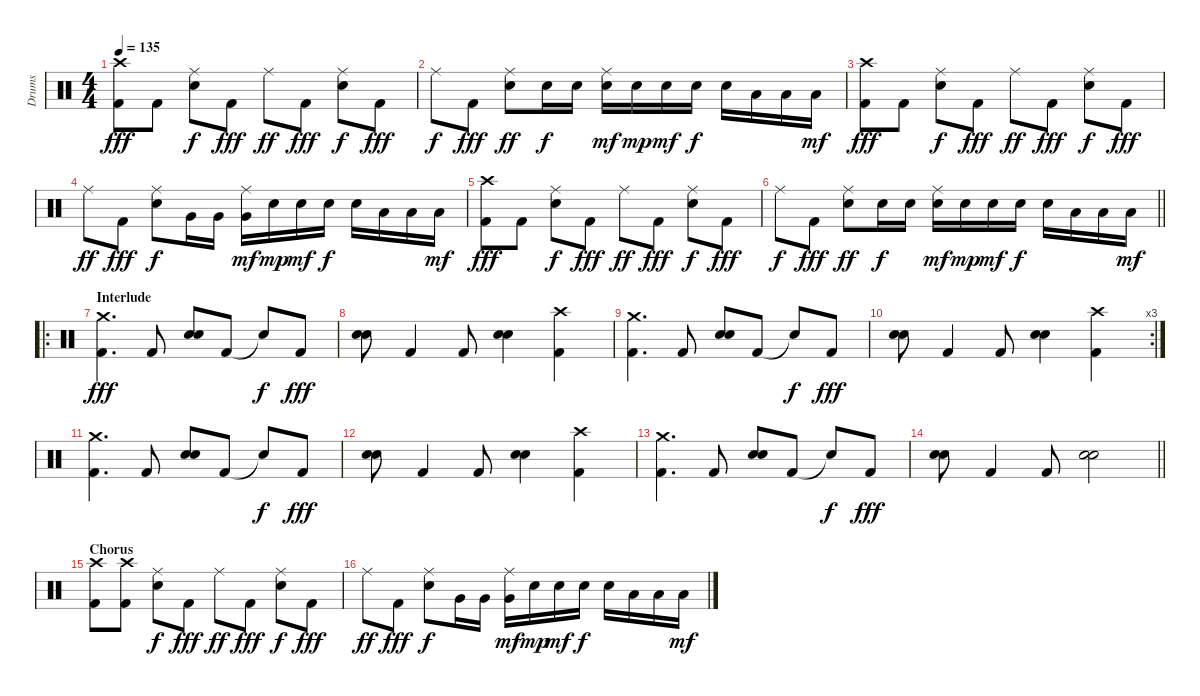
\track ("Drums" "Drums") {instrument percussion}
\staff {score}
\articulation defaults
\ts (4 4)
\tempo 135
\clef neutral
\ks c
("Crash high (hit)" "Kick (hit) 2").8{dy fff} "Kick (hit) 2".8 ("Ride (middle)" "Electric Snare (hit)").8{dy f} "Kick (hit) 2".8{dy fff} "Ride (middle)".8{dy ff} "Kick (hit) 2".8{dy fff} ("Ride (middle)" "Electric Snare (hit)").8{dy f} "Kick (hit) 2".8{dy fff} |
"Ride (middle)".8{dy f} "Kick (hit) 2".8{dy fff} ("Ride (middle)" "Electric Snare (hit)").8{dy ff} "Electric Snare (hit)".16{dy f} "Electric Snare (hit)".16 ("Ride (middle)" "Electric Snare (hit)").16{dy mf} "Electric Snare (hit)".16{dy mp} "Electric Snare (hit)".16{dy mf} "Electric Snare (hit)".16{dy f} "Electric Snare (hit)".16 "Low Tom (hit)".16 "Low Tom (hit)".16 "Low Tom (hit)".16{dy mf} |
("Crash high (hit)" "Kick (hit) 2").8{dy fff} "Kick (hit) 2".8 ("Ride (middle)" "Electric Snare (hit)").8{dy f} "Kick (hit) 2".8{dy fff} "Ride (middle)".8{dy ff} "Kick (hit) 2".8{dy fff} ("Ride (middle)" "Electric Snare (hit)").8{dy f} "Kick (hit) 2".8{dy fff} |
"Ride (middle)".8{dy ff} "Kick (hit) 2".8{dy fff} ("Ride (middle)" "Electric Snare (hit)").8{dy f} "Very Low Tom (hit)".16 "Very Low Tom (hit)".16 ("Ride (middle)" "Very Low Tom (hit)").16{dy mf} "Electric Snare (hit)".16{dy mp} "Electric Snare (hit)".16{dy mf} "Electric Snare (hit)".16{dy f} "Electric Snare (hit)".16 "Low Tom (hit)".16 "Low Tom (hit)".16 "Low Tom (hit)".16{dy mf} |
("Crash high (hit)" "Kick (hit) 2").8{dy fff} "Kick (hit) 2".8 ("Ride (middle)" "Electric Snare (hit)").8{dy f} "Kick (hit) 2".8{dy fff} "Ride (middle)".8{dy ff} "Kick (hit) 2".8{dy fff} ("Ride (middle)" "Electric Snare (hit)").8{dy f} "Kick (hit) 2".8{dy fff} |
\barLineRight lightlight "Ride (middle)".8{dy f} "Kick (hit) 2".8{dy fff}
("Ride (middle)" "Electric Snare (hit)").8{dy ff} "Electric Snare (hit)".16{dy f} "Electric Snare (hit)".16 ("Ride (middle)" "Electric Snare (hit)").16{dy mf} "Electric Snare (hit)".16{dy mp} "Electric Snare (hit)".16{dy mf} "Electric Snare (hit)".16{dy f} "Electric Snare (hit)".16 "Low Tom (hit)".16 "Low Tom (hit)".16 "Low Tom (hit)".16{dy mf} |
\ro
\section ("" "Interlude")
("Crash medium (hit)" "Kick (hit) 2").4{d dy fff} "Kick (hit) 2".8 ("Electric Snare (hit)" "Electric Snare (hit)").8 "Kick (hit) 2".8 "Snare (hit)"{t}.8{dy f} "Kick (hit) 2".8{dy fff} |
("Electric Snare (hit)" "Electric Snare (hit)").8 "Kick (hit) 2".4 "Kick (hit) 2".8 ("Electric Snare (hit)" "Electric Snare (hit)").4 ("Crash high (hit)" "Kick (hit) 2").4 |
("Crash medium (hit)" "Kick (hit) 2").4{d} "Kick (hit) 2".8 ("Electric Snare (hit)" "Electric Snare (hit)").8 "Kick (hit) 2".8 "Snare (hit)"{t}.8{dy f} "Kick (hit) 2".8{dy fff} |
\rc 3
("Electric Snare (hit)" "Electric Snare (hit)").8 "Kick (hit) 2".4 "Kick (hit) 2".8 ("Electric Snare (hit)" "Electric Snare (hit)").4 ("Crash high (hit)" "Kick (hit) 2").4 |
("Crash medium (hit)" "Kick (hit) 2").4{d} "Kick (hit) 2".8 ("Electric Snare (hit)" "Electric Snare (hit)").8 "Kick (hit) 2".8 "Snare (hit)"{t}.8{dy f} "Kick (hit) 2".8{dy fff} |
("Electric Snare (hit)" "Electric Snare (hit)").8 "Kick (hit) 2".4 "Kick (hit) 2".8 ("Electric Snare (hit)" "Electric Snare (hit)").4 ("Crash high (hit)" "Kick (hit) 2").4 |
("Crash medium (hit)" "Kick (hit) 2").4{d} "Kick (hit) 2".8 ("Electric Snare (hit)" "Electric Snare (hit)").8 "Kick (hit) 2".8 "Snare (hit)"{t}.8{dy f} "Kick (hit) 2".8{dy fff} |
\barLineRight lightlight
("Electric Snare (hit)" "Electric Snare (hit)").8 "Kick (hit) 2".4 "Kick (hit) 2".8 ("Electric Snare (hit)" "Electric Snare (hit)").2 |
\section ("" "Chorus")
("Crash high (hit)" "Kick (hit) 2").8 ("Crash high (hit)" "Kick (hit) 2").8 ("Ride (middle)" "Electric Snare (hit)").8{dy f} "Kick (hit) 2".8{dy fff} "Ride (middle)".8{dy ff} "Kick (hit) 2".8{dy fff} ("Ride (middle)" "Electric Snare (hit)").8{dy f} "Kick (hit) 2".8{dy fff} |
"Ride (middle)".8{dy ff} "Kick (hit) 2".8{dy fff} ("Ride (middle)" "Electric Snare (hit)").8{dy f} "Very Low Tom (hit)".16 "Very Low Tom (hit)".16 ("Ride (middle)" "Very Low Tom (hit)").16{dy mf} "Electric Snare (hit)".16{dy mp} "Electric Snare (hit)".16{dy mf} "Electric Snare (hit)".16{dy f} "Electric Snare (hit)".16 "Low Tom (hit)".16 "Low Tom (hit)".16 "Low Tom (hit)".16{dy mf}
